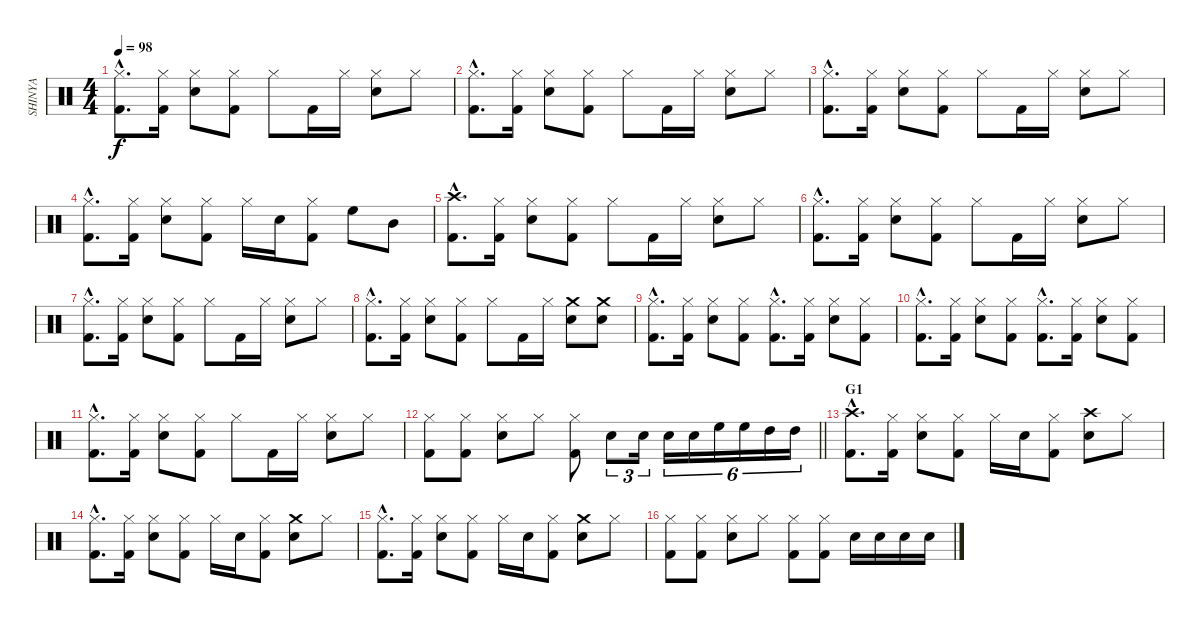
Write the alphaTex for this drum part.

\track ("SHINYA" "SHINYA") {instrument percussion}
\staff {score}
\articulation defaults
\ts (4 4)
\tempo 98
\clef neutral
\ks c
("Hi-Hat (closed)"{hac} "Kick (hit) 2"{hac}).8{d dy f} ("Hi-Hat (closed)" "Kick (hit) 2").16 ("Hi-Hat (closed)" "Snare (hit) 2").8 ("Hi-Hat (closed)" "Kick (hit) 2").8 "Hi-Hat (closed)".8 "Kick (hit) 2".16 "Hi-Hat (closed)".16 ("Hi-Hat (closed)" "Snare (hit) 2").8 "Hi-Hat (closed)".8 |
("Hi-Hat (closed)"{hac} "Kick (hit) 2"{hac}).8{d} ("Hi-Hat (closed)" "Kick (hit) 2").16 ("Hi-Hat (closed)" "Snare (hit) 2").8 ("Hi-Hat (closed)" "Kick (hit) 2").8 "Hi-Hat (closed)".8 "Kick (hit) 2".16 "Hi-Hat (closed)".16 ("Hi-Hat (closed)" "Snare (hit) 2").8 "Hi-Hat (closed)".8 |
("Hi-Hat (closed)"{hac} "Kick (hit) 2"{hac}).8{d} ("Hi-Hat (closed)" "Kick (hit) 2").16 ("Hi-Hat (closed)" "Snare (hit) 2").8 ("Hi-Hat (closed)" "Kick (hit) 2").8 "Hi-Hat (closed)".8 "Kick (hit) 2".16 "Hi-Hat (closed)".16 ("Hi-Hat (closed)" "Snare (hit) 2").8 "Hi-Hat (closed)".8 |
("Hi-Hat (closed)"{hac} "Kick (hit) 2"{hac}).8{d} ("Hi-Hat (closed)" "Kick (hit) 2").16 ("Hi-Hat (closed)" "Snare (hit) 2").8 ("Hi-Hat (closed)" "Kick (hit) 2").8 "Hi-Hat (closed)".16 "Snare (hit) 2".16 ("Hi-Hat (closed)" "Kick (hit) 2").8 "High Floor Tom (hit)".8 "Mid Tom (hit)".8 |
("Crash high (hit)"{hac} "Kick (hit) 2"{hac}).8{d} ("Hi-Hat (closed)" "Kick (hit) 2").16 ("Hi-Hat (closed)" "Snare (hit) 2").8 ("Hi-Hat (closed)" "Kick (hit) 2").8 "Hi-Hat (closed)".8 "Kick (hit) 2".16 "Hi-Hat (closed)".16 ("Hi-Hat (closed)" "Snare (hit) 2").8 "Hi-Hat (closed)".8 |
("Hi-Hat (closed)"{hac} "Kick (hit) 2"{hac}).8{d} ("Hi-Hat (closed)" "Kick (hit) 2").16 ("Hi-Hat (closed)" "Snare (hit) 2").8 ("Hi-Hat (closed)" "Kick (hit) 2").8 "Hi-Hat (closed)".8 "Kick (hit) 2".16 "Hi-Hat (closed)".16 ("Hi-Hat (closed)" "Snare (hit) 2").8 "Hi-Hat (closed)".8 |
("Hi-Hat (closed)"{hac} "Kick (hit) 2"{hac}).8{d} ("Hi-Hat (closed)" "Kick (hit) 2").16 ("Hi-Hat (closed)" "Snare (hit) 2").8 ("Hi-Hat (closed)" "Kick (hit) 2").8 "Hi-Hat (closed)".8 "Kick (hit) 2".16 "Hi-Hat (closed)".16 ("Hi-Hat (closed)" "Snare (hit) 2").8 "Hi-Hat (closed)".8 |
("Hi-Hat (closed)"{hac} "Kick (hit) 2"{hac}).8{d} ("Hi-Hat (closed)" "Kick (hit) 2").16 ("Hi-Hat (closed)" "Snare (hit) 2").8 ("Hi-Hat (closed)" "Kick (hit) 2").8 "Hi-Hat (closed)".8 "Kick (hit) 2".16 "Hi-Hat (closed)".16 ("Crash medium (hit)" "Snare (hit) 2").8 ("Crash medium (hit)" "Snare (hit) 2").8 |
("Hi-Hat (closed)"{hac} "Kick (hit) 2"{hac}).8{d} ("Hi-Hat (closed)" "Kick (hit) 2").16 ("Hi-Hat (closed)" "Snare (hit) 2").8 ("Hi-Hat (closed)" "Kick (hit) 2").8 ("Hi-Hat (closed)"{hac} "Kick (hit) 2"{hac}).8{d} ("Hi-Hat (closed)" "Kick (hit) 2").16 ("Hi-Hat (closed)" "Snare (hit) 2").8 ("Hi-Hat (closed)" "Kick (hit) 2").8 |
("Hi-Hat (closed)"{hac} "Kick (hit) 2"{hac}).8{d} ("Hi-Hat (closed)" "Kick (hit) 2").16 ("Hi-Hat (closed)" "Snare (hit) 2").8 ("Hi-Hat (closed)" "Kick (hit) 2").8 ("Hi-Hat (closed)"{hac} "Kick (hit) 2"{hac}).8{d} ("Hi-Hat (closed)" "Kick (hit) 2").16 ("Hi-Hat (closed)" "Snare (hit) 2").8 ("Hi-Hat (closed)" "Kick (hit) 2").8 |
("Hi-Hat (closed)"{hac} "Kick (hit) 2"{hac}).8{d} ("Hi-Hat (closed)" "Kick (hit) 2").16 ("Hi-Hat (closed)" "Snare (hit) 2").8 ("Hi-Hat (closed)" "Kick (hit) 2").8 "Hi-Hat (closed)".8 "Kick (hit) 2".16 "Hi-Hat (closed)".16 ("Hi-Hat (closed)" "Snare (hit) 2").8 "Hi-Hat (closed)".8 |
\barLineRight lightlight
("Hi-Hat (closed)" "Kick (hit) 2").8 ("Hi-Hat (closed)" "Kick (hit) 2").8 ("Hi-Hat (closed)" "Snare (hit) 2").8 "Hi-Hat (closed)".8 ("Hi-Hat (closed)" "Kick (hit) 2").8 "Snare (hit) 2".8{tu (3 2)} "Snare (hit) 2".16{tu (3 2)} "Snare (hit) 2".16{tu (6 4)} "Snare (hit) 2".16{tu (6 4)} "High Floor Tom (hit)".16{tu (6 4)} "High Floor Tom (hit)".16{tu (6 4)} "High Tom (hit)".16{tu (6 4)} "High Tom (hit)".16{tu (6 4)} |
\section ("" "G1")
("Crash high (hit)"{hac} "Kick (hit) 2"{hac}).8{d} ("Hi-Hat (closed)" "Kick (hit) 2").16 ("Hi-Hat (closed)" "Snare (hit) 2").8 ("Hi-Hat (closed)" "Kick (hit) 2").8 "Hi-Hat (closed)".16 "Snare (hit) 2".16 ("Hi-Hat (closed)" "Kick (hit) 2").8 ("Crash high (hit)" "Snare (hit) 2").8 "Hi-Hat (closed)".8 |
("Hi-Hat (closed)"{hac} "Kick (hit) 2"{hac}).8{d} ("Hi-Hat (closed)" "Kick (hit) 2").16 ("Hi-Hat (closed)" "Snare (hit) 2").8 ("Hi-Hat (closed)" "Kick (hit) 2").8 "Hi-Hat (closed)".16 "Snare (hit) 2".16 ("Hi-Hat (closed)" "Kick (hit) 2").8 ("Crash medium (hit)" "Snare (hit) 2").8 "Hi-Hat (closed)".8 |
("Hi-Hat (closed)"{hac} "Kick (hit) 2"{hac}).8{d} ("Hi-Hat (closed)" "Kick (hit) 2").16 ("Hi-Hat (closed)" "Snare (hit) 2").8 ("Hi-Hat (closed)" "Kick (hit) 2").8 "Hi-Hat (closed)".16 "Snare (hit) 2".16 ("Hi-Hat (closed)" "Kick (hit) 2").8 ("Crash medium (hit)" "Snare (hit) 2").8 "Hi-Hat (closed)".8 |
("Hi-Hat (closed)" "Kick (hit) 2").8 ("Hi-Hat (closed)" "Kick (hit) 2").8 ("Hi-Hat (closed)" "Snare (hit) 2").8 "Hi-Hat (closed)".8 ("Hi-Hat (closed)" "Kick (hit) 2").8 ("Hi-Hat (closed)" "Kick (hit) 2").8 "Snare (hit) 2".16 "Snare (hit) 2".16 "Snare (hit) 2".16 "Snare (hit) 2".16
